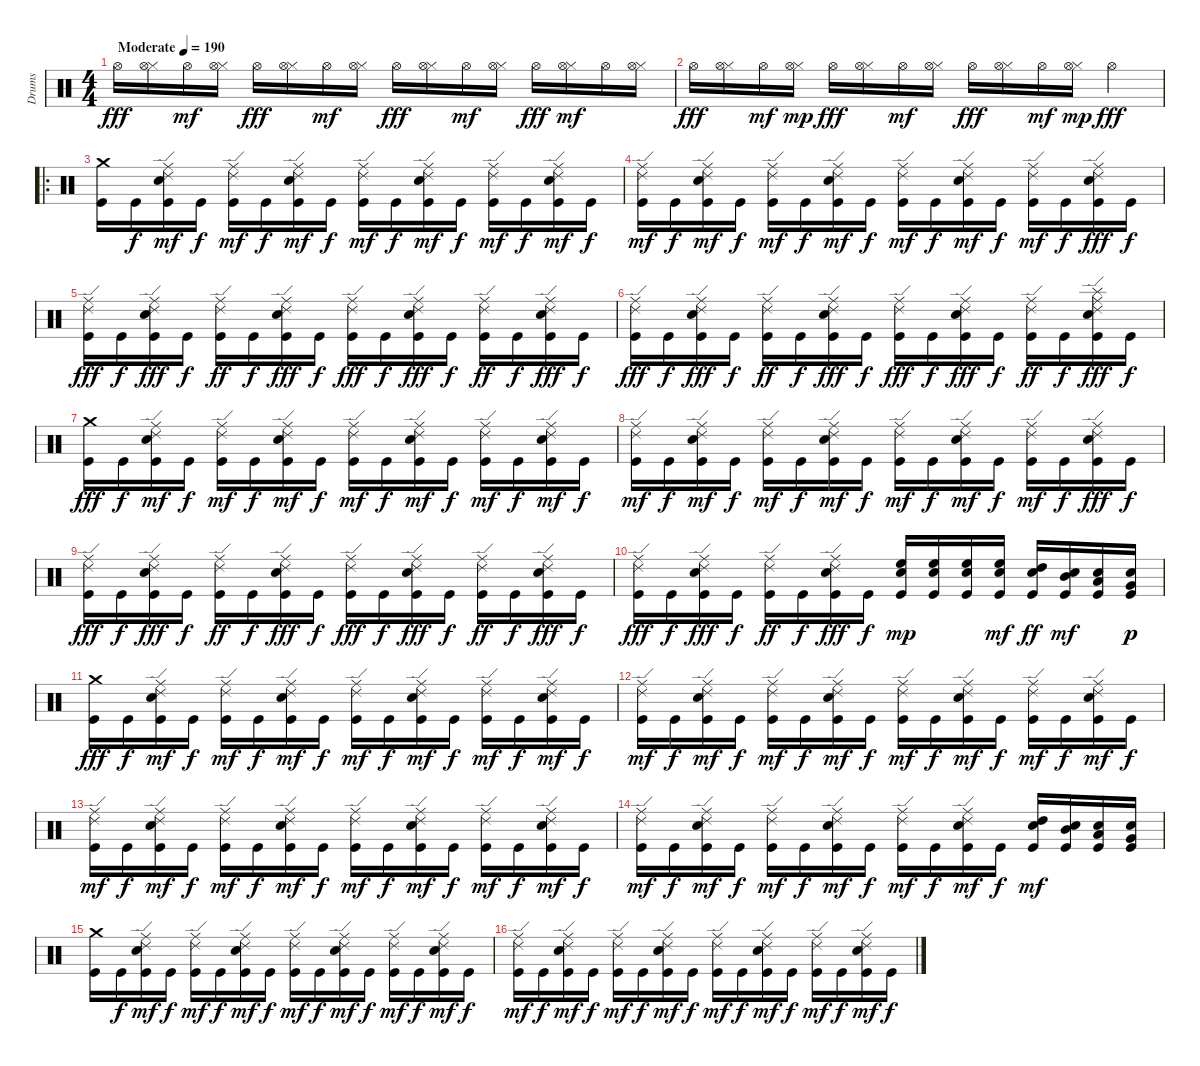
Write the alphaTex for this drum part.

\track ("Drums" "Drums") {instrument percussion}
\staff {score}
\articulation defaults
\ts (4 4)
\tempo (190 "Moderate")
\clef neutral
\ks c "Hi-Hat (open)".16{dy fff}
("Hi-Hat (closed)" "Hi-Hat (open)").16 "Hi-Hat (open)".16{dy mf} ("Hi-Hat (closed)" "Hi-Hat (open)").16 "Hi-Hat (open)".16{dy fff} ("Hi-Hat (closed)" "Hi-Hat (open)").16 "Hi-Hat (open)".16{dy mf} ("Hi-Hat (closed)" "Hi-Hat (open)").16 "Hi-Hat (open)".16{dy fff} ("Hi-Hat (closed)" "Hi-Hat (open)").16 "Hi-Hat (open)".16{dy mf} ("Hi-Hat (closed)" "Hi-Hat (open)").16 "Hi-Hat (open)".16{dy fff} ("Hi-Hat (closed)" "Hi-Hat (open)").16{dy mf} "Hi-Hat (open)".16 ("Hi-Hat (closed)" "Hi-Hat (open)").16 |
"Hi-Hat (open)".16{dy fff} ("Hi-Hat (closed)" "Hi-Hat (open)").16 "Hi-Hat (open)".16{dy mf} ("Hi-Hat (closed)" "Hi-Hat (open)").16{dy mp} "Hi-Hat (open)".16{dy fff} ("Hi-Hat (closed)" "Hi-Hat (open)").16 "Hi-Hat (open)".16{dy mf} ("Hi-Hat (closed)" "Hi-Hat (open)").16 "Hi-Hat (open)".16{dy fff} ("Hi-Hat (closed)" "Hi-Hat (open)").16 "Hi-Hat (open)".16{dy mf} ("Hi-Hat (closed)" "Hi-Hat (open)").16{dy mp} "Hi-Hat (open)".4{dy fff} |
\ro
("Kick (hit)" "Crash medium (hit)").16 "Kick (hit)".16{dy f} ("Electric Snare (hit)" "Kick (hit)" "Ride (edge) 2" "Ride (middle)").16{dy mf} "Kick (hit)".16{dy f} ("Kick (hit)" "Ride (edge) 2" "Ride (middle)").16{dy mf} "Kick (hit)".16{dy f} ("Electric Snare (hit)" "Kick (hit)" "Ride (edge) 2" "Ride (middle)").16{dy mf} "Kick (hit)".16{dy f} ("Kick (hit)" "Ride (edge) 2" "Ride (middle)").16{dy mf} "Kick (hit)".16{dy f} ("Electric Snare (hit)" "Kick (hit)" "Ride (edge) 2" "Ride (middle)").16{dy mf} "Kick (hit)".16{dy f} ("Kick (hit)" "Ride (edge) 2" "Ride (middle)").16{dy mf} "Kick (hit)".16{dy f} ("Electric Snare (hit)" "Kick (hit)" "Ride (edge) 2" "Ride (middle)").16{dy mf} "Kick (hit)".16{dy f} |
("Kick (hit)" "Ride (middle)" "Ride (edge) 2").16{dy mf} "Kick (hit)".16{dy f} ("Ride (edge) 2" "Ride (middle)" "Kick (hit)" "Electric Snare (hit)").16{dy mf} "Kick (hit)".16{dy f} ("Kick (hit)" "Ride (middle)" "Ride (edge) 2").16{dy mf} "Kick (hit)".16{dy f} ("Electric Snare (hit)" "Kick (hit)" "Ride (edge) 2" "Ride (middle)").16{dy mf} "Kick (hit)".16{dy f} ("Kick (hit)" "Ride (edge) 2" "Ride (middle)").16{dy mf} "Kick (hit)".16{dy f} ("Kick (hit)" "Ride (middle)" "Ride (edge) 2" "Electric Snare (hit)").16{dy mf} "Kick (hit)".16{dy f} ("Kick (hit)" "Ride (edge) 2" "Ride (middle)").16{dy mf} "Kick (hit)".16{dy f} ("Kick (hit)" "Electric Snare (hit)" "Ride (middle)" "Ride (edge) 2").16{dy fff} "Kick (hit)".16{dy f} |
("Ride (edge) 2" "Ride (middle)" "Kick (hit)").16{dy fff} "Kick (hit)".16{dy f} ("Ride (edge) 2" "Ride (middle)" "Electric Snare (hit)" "Kick (hit)").16{dy fff} "Kick (hit)".16{dy f} ("Ride (edge) 2" "Ride (middle)" "Kick (hit)").16{dy ff} "Kick (hit)".16{dy f} ("Electric Snare (hit)" "Kick (hit)" "Ride (middle)" "Ride (edge) 2").16{dy fff} "Kick (hit)".16{dy f} ("Kick (hit)" "Ride (edge) 2" "Ride (middle)").16{dy fff} "Kick (hit)".16{dy f} ("Electric Snare (hit)" "Kick (hit)" "Ride (edge) 2" "Ride (middle)").16{dy fff} "Kick (hit)".16{dy f} ("Kick (hit)" "Ride (edge) 2" "Ride (middle)").16{dy ff} "Kick (hit)".16{dy f} ("Electric Snare (hit)" "Kick (hit)" "Ride (middle)" "Ride (edge) 2").16{dy fff} "Kick (hit)".16{dy f} |
("Kick (hit)" "Ride (edge) 2" "Ride (middle)").16{dy fff} "Kick (hit)".16{dy f} ("Kick (hit)" "Electric Snare (hit)" "Ride (edge) 2" "Ride (middle)").16{dy fff} "Kick (hit)".16{dy f} ("Kick (hit)" "Ride (edge) 2" "Ride (middle)").16{dy ff} "Kick (hit)".16{dy f} ("Electric Snare (hit)" "Kick (hit)" "Ride (middle)" "Ride (edge) 2").16{dy fff} "Kick (hit)".16{dy f} ("Kick (hit)" "Ride (edge) 2" "Ride (middle)").16{dy fff} "Kick (hit)".16{dy f} ("Kick (hit)" "Electric Snare (hit)" "Ride (edge) 2" "Ride (middle)").16{dy fff} "Kick (hit)".16{dy f} ("Kick (hit)" "Ride (edge) 2" "Ride (middle)").16{dy ff} "Kick (hit)".16{dy f} ("Splash (hit)" "Kick (hit)" "Electric Snare (hit)" "Ride (middle)" "Ride (edge) 2").16{dy fff} "Kick (hit)".16{dy f} |
("Kick (hit)" "Crash medium (hit)").16{dy fff} "Kick (hit)".16{dy f} ("Electric Snare (hit)" "Kick (hit)" "Ride (edge) 2" "Ride (middle)").16{dy mf} "Kick (hit)".16{dy f} ("Kick (hit)" "Ride (edge) 2" "Ride (middle)").16{dy mf} "Kick (hit)".16{dy f} ("Electric Snare (hit)" "Kick (hit)" "Ride (edge) 2" "Ride (middle)").16{dy mf} "Kick (hit)".16{dy f} ("Kick (hit)" "Ride (edge) 2" "Ride (middle)").16{dy mf} "Kick (hit)".16{dy f} ("Electric Snare (hit)" "Kick (hit)" "Ride (edge) 2" "Ride (middle)").16{dy mf} "Kick (hit)".16{dy f} ("Kick (hit)" "Ride (edge) 2" "Ride (middle)").16{dy mf} "Kick (hit)".16{dy f} ("Electric Snare (hit)" "Kick (hit)" "Ride (edge) 2" "Ride (middle)").16{dy mf} "Kick (hit)".16{dy f} |
("Kick (hit)" "Ride (middle)" "Ride (edge) 2").16{dy mf} "Kick (hit)".16{dy f} ("Ride (edge) 2" "Ride (middle)" "Kick (hit)" "Electric Snare (hit)").16{dy mf} "Kick (hit)".16{dy f} ("Kick (hit)" "Ride (middle)" "Ride (edge) 2").16{dy mf} "Kick (hit)".16{dy f} ("Electric Snare (hit)" "Kick (hit)" "Ride (edge) 2" "Ride (middle)").16{dy mf} "Kick (hit)".16{dy f} ("Kick (hit)" "Ride (edge) 2" "Ride (middle)").16{dy mf} "Kick (hit)".16{dy f} ("Kick (hit)" "Ride (middle)" "Ride (edge) 2" "Electric Snare (hit)").16{dy mf} "Kick (hit)".16{dy f} ("Kick (hit)" "Ride (edge) 2" "Ride (middle)").16{dy mf} "Kick (hit)".16{dy f} ("Kick (hit)" "Electric Snare (hit)" "Ride (middle)" "Ride (edge) 2").16{dy fff} "Kick (hit)".16{dy f} |
("Ride (edge) 2" "Ride (middle)" "Kick (hit)").16{dy fff} "Kick (hit)".16{dy f} ("Ride (edge) 2" "Ride (middle)" "Electric Snare (hit)" "Kick (hit)").16{dy fff} "Kick (hit)".16{dy f} ("Ride (edge) 2" "Ride (middle)" "Kick (hit)").16{dy ff} "Kick (hit)".16{dy f} ("Electric Snare (hit)" "Kick (hit)" "Ride (middle)" "Ride (edge) 2").16{dy fff} "Kick (hit)".16{dy f} ("Kick (hit)" "Ride (edge) 2" "Ride (middle)").16{dy fff} "Kick (hit)".16{dy f} ("Electric Snare (hit)" "Kick (hit)" "Ride (edge) 2" "Ride (middle)").16{dy fff} "Kick (hit)".16{dy f} ("Kick (hit)" "Ride (edge) 2" "Ride (middle)").16{dy ff} "Kick (hit)".16{dy f} ("Electric Snare (hit)" "Kick (hit)" "Ride (middle)" "Ride (edge) 2").16{dy fff} "Kick (hit)".16{dy f} |
("Kick (hit)" "Ride (edge) 2" "Ride (middle)").16{dy fff} "Kick (hit)".16{dy f} ("Kick (hit)" "Electric Snare (hit)" "Ride (edge) 2" "Ride (middle)").16{dy fff} "Kick (hit)".16{dy f} ("Kick (hit)" "Ride (edge) 2" "Ride (middle)").16{dy ff} "Kick (hit)".16{dy f} ("Electric Snare (hit)" "Kick (hit)" "Ride (middle)" "Ride (edge) 2").16{dy fff} "Kick (hit)".16{dy f} ("High Floor Tom (hit)" "Kick (hit)" "Electric Snare (hit)").16{dy mp} ("Kick (hit)" "High Floor Tom (hit)" "Electric Snare (hit)").16 ("High Floor Tom (hit)" "Kick (hit)" "Electric Snare (hit)").16 ("Kick (hit)" "High Floor Tom (hit)" "Electric Snare (hit)").16{dy mf} ("High Tom (hit)" "Kick (hit)" "Electric Snare (hit)").16{dy ff} ("Kick (hit)" "Mid Tom (hit)" "Electric Snare (hit)").16{dy mf} ("Kick (hit)" "Electric Snare (hit)" "Low Tom (hit)").16 ("Electric Snare (hit)" "Kick (hit)" "Very Low Tom (hit)").16{dy p} |
("Kick (hit)" "Crash medium (hit)").16{dy fff} "Kick (hit)".16{dy f} ("Electric Snare (hit)" "Kick (hit)" "Ride (edge) 2" "Ride (middle)").16{dy mf} "Kick (hit)".16{dy f} ("Kick (hit)" "Ride (edge) 2" "Ride (middle)").16{dy mf} "Kick (hit)".16{dy f} ("Electric Snare (hit)" "Kick (hit)" "Ride (edge) 2" "Ride (middle)").16{dy mf} "Kick (hit)".16{dy f} ("Kick (hit)" "Ride (edge) 2" "Ride (middle)").16{dy mf} "Kick (hit)".16{dy f} ("Electric Snare (hit)" "Kick (hit)" "Ride (edge) 2" "Ride (middle)").16{dy mf} "Kick (hit)".16{dy f} ("Kick (hit)" "Ride (edge) 2" "Ride (middle)").16{dy mf} "Kick (hit)".16{dy f} ("Electric Snare (hit)" "Kick (hit)" "Ride (edge) 2" "Ride (middle)").16{dy mf} "Kick (hit)".16{dy f} |
("Ride (middle)" "Ride (edge) 2" "Kick (hit)").16{dy mf} "Kick (hit)".16{dy f} ("Electric Snare (hit)" "Kick (hit)" "Ride (edge) 2" "Ride (middle)").16{dy mf} "Kick (hit)".16{dy f} ("Kick (hit)" "Ride (edge) 2" "Ride (middle)").16{dy mf} "Kick (hit)".16{dy f} ("Electric Snare (hit)" "Kick (hit)" "Ride (edge) 2" "Ride (middle)").16{dy mf} "Kick (hit)".16{dy f} ("Kick (hit)" "Ride (edge) 2" "Ride (middle)").16{dy mf} "Kick (hit)".16{dy f} ("Electric Snare (hit)" "Kick (hit)" "Ride (edge) 2" "Ride (middle)").16{dy mf} "Kick (hit)".16{dy f} ("Kick (hit)" "Ride (edge) 2" "Ride (middle)").16{dy mf} "Kick (hit)".16{dy f} ("Electric Snare (hit)" "Kick (hit)" "Ride (edge) 2" "Ride (middle)").16{dy mf} "Kick (hit)".16{dy f} |
("Ride (middle)" "Ride (edge) 2" "Kick (hit)").16{dy mf} "Kick (hit)".16{dy f} ("Electric Snare (hit)" "Kick (hit)" "Ride (edge) 2" "Ride (middle)").16{dy mf} "Kick (hit)".16{dy f} ("Kick (hit)" "Ride (edge) 2" "Ride (middle)").16{dy mf} "Kick (hit)".16{dy f} ("Electric Snare (hit)" "Kick (hit)" "Ride (edge) 2" "Ride (middle)").16{dy mf} "Kick (hit)".16{dy f} ("Kick (hit)" "Ride (edge) 2" "Ride (middle)").16{dy mf} "Kick (hit)".16{dy f} ("Electric Snare (hit)" "Kick (hit)" "Ride (edge) 2" "Ride (middle)").16{dy mf} "Kick (hit)".16{dy f} ("Kick (hit)" "Ride (edge) 2" "Ride (middle)").16{dy mf} "Kick (hit)".16{dy f} ("Electric Snare (hit)" "Kick (hit)" "Ride (edge) 2" "Ride (middle)").16{dy mf} "Kick (hit)".16{dy f} |
("Ride (middle)" "Ride (edge) 2" "Kick (hit)").16{dy mf} "Kick (hit)".16{dy f} ("Electric Snare (hit)" "Kick (hit)" "Ride (edge) 2" "Ride (middle)").16{dy mf} "Kick (hit)".16{dy f} ("Kick (hit)" "Ride (edge) 2" "Ride (middle)").16{dy mf} "Kick (hit)".16{dy f} ("Electric Snare (hit)" "Kick (hit)" "Ride (edge) 2" "Ride (middle)").16{dy mf} "Kick (hit)".16{dy f} ("Kick (hit)" "Ride (edge) 2" "Ride (middle)").16{dy mf} "Kick (hit)".16{dy f} ("Electric Snare (hit)" "Kick (hit)" "Ride (edge) 2" "Ride (middle)").16{dy mf} "Kick (hit)".16{dy f} ("Electric Snare (hit)" "Kick (hit)" "High Tom (hit)").16{dy mf} ("Electric Snare (hit)" "Kick (hit)" "Mid Tom (hit)").16 ("Electric Snare (hit)" "Kick (hit)" "Low Tom (hit)").16 ("Electric Snare (hit)" "Kick (hit)" "Very Low Tom (hit)").16 |
("Kick (hit)" "Crash medium (hit)").16 "Kick (hit)".16{dy f} ("Electric Snare (hit)" "Kick (hit)" "Ride (edge) 2" "Ride (middle)").16{dy mf} "Kick (hit)".16{dy f} ("Kick (hit)" "Ride (edge) 2" "Ride (middle)").16{dy mf} "Kick (hit)".16{dy f} ("Electric Snare (hit)" "Kick (hit)" "Ride (edge) 2" "Ride (middle)").16{dy mf} "Kick (hit)".16{dy f} ("Kick (hit)" "Ride (edge) 2" "Ride (middle)").16{dy mf} "Kick (hit)".16{dy f} ("Electric Snare (hit)" "Kick (hit)" "Ride (edge) 2" "Ride (middle)").16{dy mf} "Kick (hit)".16{dy f} ("Kick (hit)" "Ride (edge) 2" "Ride (middle)").16{dy mf} "Kick (hit)".16{dy f} ("Electric Snare (hit)" "Kick (hit)" "Ride (edge) 2" "Ride (middle)").16{dy mf} "Kick (hit)".16{dy f} |
("Ride (middle)" "Ride (edge) 2" "Kick (hit)").16{dy mf} "Kick (hit)".16{dy f} ("Electric Snare (hit)" "Kick (hit)" "Ride (edge) 2" "Ride (middle)").16{dy mf} "Kick (hit)".16{dy f} ("Kick (hit)" "Ride (edge) 2" "Ride (middle)").16{dy mf} "Kick (hit)".16{dy f} ("Electric Snare (hit)" "Kick (hit)" "Ride (edge) 2" "Ride (middle)").16{dy mf} "Kick (hit)".16{dy f} ("Kick (hit)" "Ride (edge) 2" "Ride (middle)").16{dy mf} "Kick (hit)".16{dy f} ("Electric Snare (hit)" "Kick (hit)" "Ride (edge) 2" "Ride (middle)").16{dy mf} "Kick (hit)".16{dy f} ("Kick (hit)" "Ride (edge) 2" "Ride (middle)").16{dy mf} "Kick (hit)".16{dy f} ("Electric Snare (hit)" "Kick (hit)" "Ride (edge) 2" "Ride (middle)").16{dy mf} "Kick (hit)".16{dy f}
